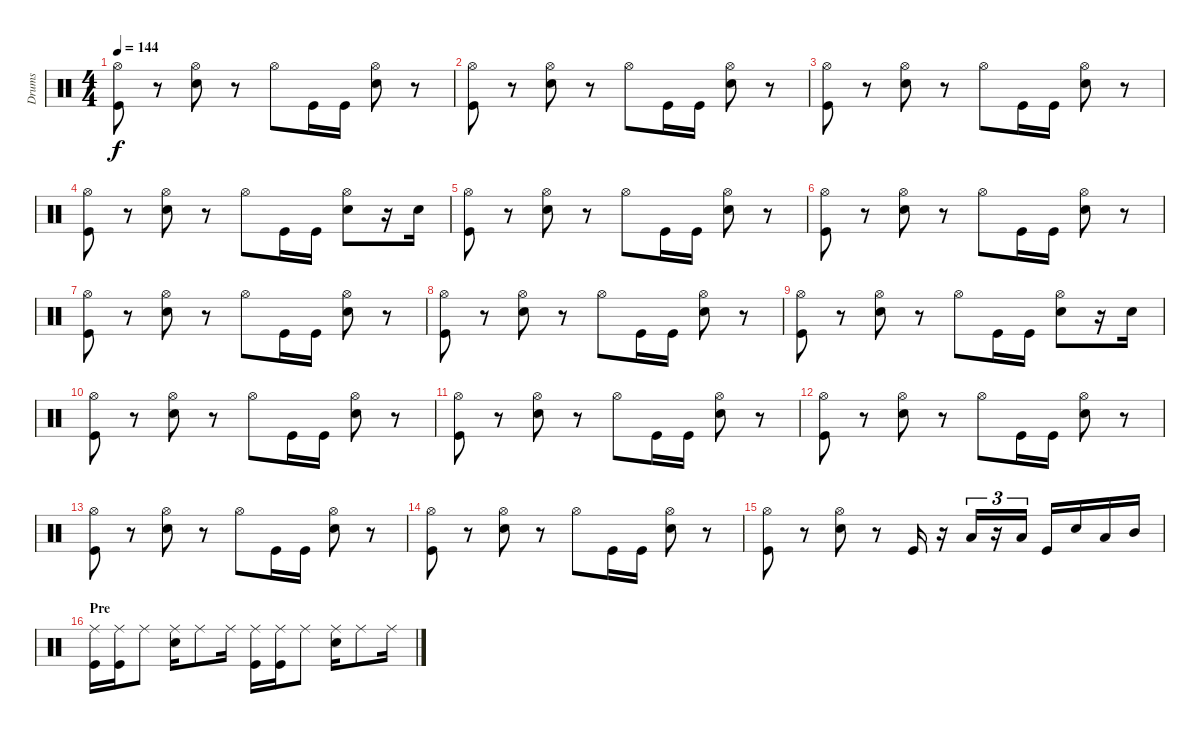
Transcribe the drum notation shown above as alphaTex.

\track ("Drums" "Drums") {instrument percussion}
\staff {score}
\articulation defaults
\ts (4 4)
\tempo 144
\clef neutral
\ks c
("Hi-Hat (open)" "Kick (hit)").8{dy f} r.8 ("Hi-Hat (open)" "Snare (hit) 2").8 r.8 "Hi-Hat (open)".8 "Kick (hit)".16 "Kick (hit)".16 ("Hi-Hat (open)" "Snare (hit) 2").8 r.8 |
("Hi-Hat (open)" "Kick (hit)").8 r.8 ("Hi-Hat (open)" "Snare (hit) 2").8 r.8 "Hi-Hat (open)".8 "Kick (hit)".16 "Kick (hit)".16 ("Hi-Hat (open)" "Snare (hit) 2").8 r.8 |
("Hi-Hat (open)" "Kick (hit)").8 r.8 ("Hi-Hat (open)" "Snare (hit) 2").8 r.8 "Hi-Hat (open)".8 "Kick (hit)".16 "Kick (hit)".16 ("Hi-Hat (open)" "Snare (hit) 2").8 r.8 |
("Hi-Hat (open)" "Kick (hit)").8 r.8 ("Hi-Hat (open)" "Snare (hit) 2").8 r.8 "Hi-Hat (open)".8 "Kick (hit)".16 "Kick (hit)".16 ("Hi-Hat (open)" "Snare (hit) 2").8 r.16 "Snare (hit) 2".16 |
("Hi-Hat (open)" "Kick (hit)").8 r.8 ("Hi-Hat (open)" "Snare (hit) 2").8 r.8 "Hi-Hat (open)".8 "Kick (hit)".16 "Kick (hit)".16 ("Hi-Hat (open)" "Snare (hit) 2").8 r.8 |
("Hi-Hat (open)" "Kick (hit)").8 r.8 ("Hi-Hat (open)" "Snare (hit) 2").8 r.8 "Hi-Hat (open)".8 "Kick (hit)".16 "Kick (hit)".16 ("Hi-Hat (open)" "Snare (hit) 2").8 r.8 |
("Hi-Hat (open)" "Kick (hit)").8 r.8 ("Hi-Hat (open)" "Snare (hit) 2").8 r.8 "Hi-Hat (open)".8 "Kick (hit)".16 "Kick (hit)".16 ("Hi-Hat (open)" "Snare (hit) 2").8 r.8 |
("Hi-Hat (open)" "Kick (hit)").8 r.8 ("Hi-Hat (open)" "Snare (hit) 2").8 r.8 "Hi-Hat (open)".8 "Kick (hit)".16 "Kick (hit)".16 ("Hi-Hat (open)" "Snare (hit) 2").8 r.8 |
("Hi-Hat (open)" "Kick (hit)").8 r.8 ("Hi-Hat (open)" "Snare (hit) 2").8 r.8 "Hi-Hat (open)".8 "Kick (hit)".16 "Kick (hit)".16 ("Hi-Hat (open)" "Snare (hit) 2").8 r.16 "Snare (hit) 2".16 |
("Hi-Hat (open)" "Kick (hit)").8 r.8 ("Hi-Hat (open)" "Snare (hit) 2").8 r.8 "Hi-Hat (open)".8 "Kick (hit)".16 "Kick (hit)".16 ("Hi-Hat (open)" "Snare (hit) 2").8 r.8 |
("Hi-Hat (open)" "Kick (hit)").8 r.8 ("Hi-Hat (open)" "Snare (hit) 2").8 r.8 "Hi-Hat (open)".8 "Kick (hit)".16 "Kick (hit)".16 ("Hi-Hat (open)" "Snare (hit) 2").8 r.8 |
("Hi-Hat (open)" "Kick (hit)").8 r.8 ("Hi-Hat (open)" "Snare (hit) 2").8 r.8 "Hi-Hat (open)".8 "Kick (hit)".16 "Kick (hit)".16 ("Hi-Hat (open)" "Snare (hit) 2").8 r.8 |
("Hi-Hat (open)" "Kick (hit)").8 r.8 ("Hi-Hat (open)" "Snare (hit) 2").8 r.8 "Hi-Hat (open)".8 "Kick (hit)".16 "Kick (hit)".16 ("Hi-Hat (open)" "Snare (hit) 2").8 r.8 |
("Hi-Hat (open)" "Kick (hit)").8 r.8 ("Hi-Hat (open)" "Snare (hit) 2").8 r.8 "Hi-Hat (open)".8 "Kick (hit)".16 "Kick (hit)".16 ("Hi-Hat (open)" "Snare (hit) 2").8 r.8 |
("Hi-Hat (open)" "Kick (hit)").8 r.8 ("Hi-Hat (open)" "Snare (hit) 2").8 r.8 "Kick (hit)".16 r.16 "Low Tom (hit)".16{tu (3 2)} r.16{tu (3 2)} "Low Floor Tom (hit)".16{tu (3 2)} "Kick (hit)".16 "Snare (hit) 2".16 "Low Tom (hit)".16 "Mid Tom (hit)".16 |
\section ("" "Pre")
("Ride (middle)" "Kick (hit)").16 ("Ride (middle)" "Kick (hit)").16 "Ride (middle)".8 ("Ride (middle)" "Snare (hit) 2").16 "Ride (middle)".8 "Ride (middle)".16 ("Ride (middle)" "Kick (hit)").16 ("Ride (middle)" "Kick (hit)").16 "Ride (middle)".8 ("Ride (middle)" "Snare (hit) 2").16 "Ride (middle)".8 "Ride (middle)".16
